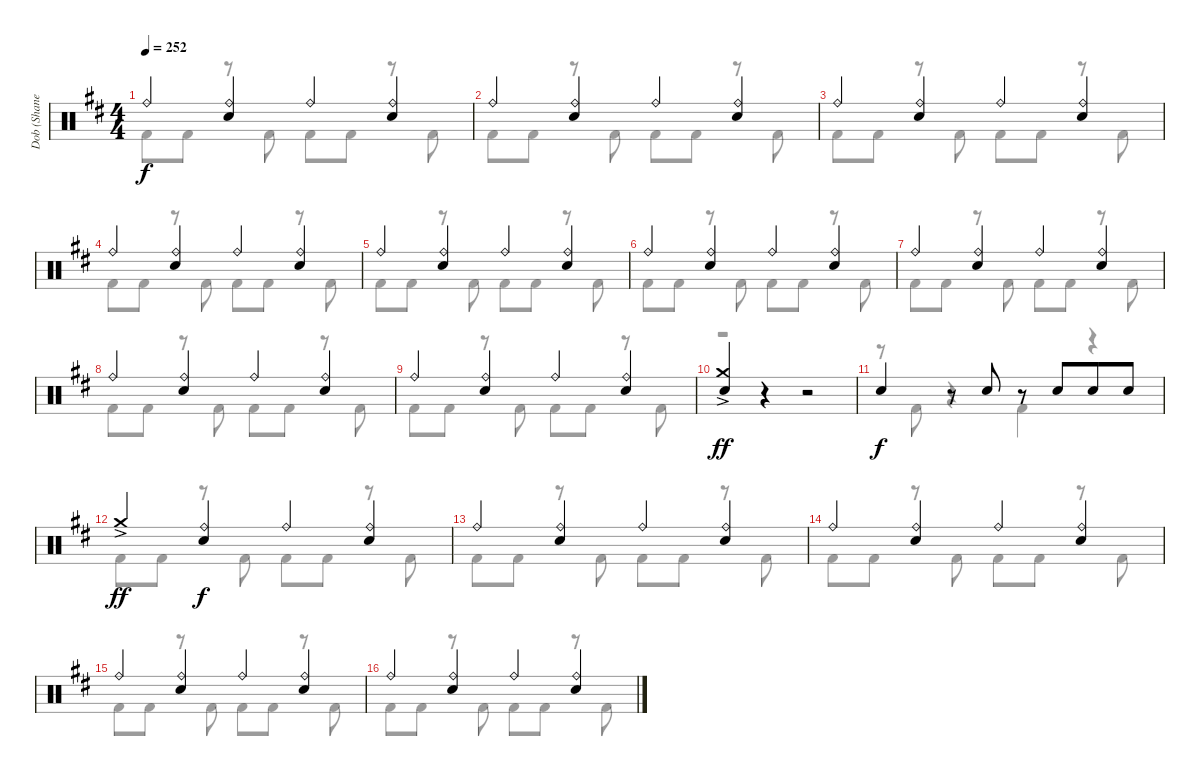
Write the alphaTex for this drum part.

\track ("Dob (Shane Gaalaas)" "Dob (Shane") {instrument percussion}
\staff {score}
\articulation defaults
\voice
\ts (4 4)
\tempo 252
\clef neutral
\ks d "Ride (bell)".4{dy f}
("Ride (bell)" "Electric Snare (hit)").4 "Ride (bell)".4 ("Ride (bell)" "Electric Snare (hit)").4 |
"Ride (bell)".4 ("Ride (bell)" "Electric Snare (hit)").4 "Ride (bell)".4 ("Ride (bell)" "Electric Snare (hit)").4 |
"Ride (bell)".4 ("Ride (bell)" "Electric Snare (hit)").4 "Ride (bell)".4 ("Ride (bell)" "Electric Snare (hit)").4 |
"Ride (bell)".4 ("Ride (bell)" "Electric Snare (hit)").4 "Ride (bell)".4 ("Ride (bell)" "Electric Snare (hit)").4 |
"Ride (bell)".4 ("Ride (bell)" "Electric Snare (hit)").4 "Ride (bell)".4 ("Ride (bell)" "Electric Snare (hit)").4 |
"Ride (bell)".4 ("Ride (bell)" "Electric Snare (hit)").4 "Ride (bell)".4 ("Ride (bell)" "Electric Snare (hit)").4 |
"Ride (bell)".4 ("Ride (bell)" "Electric Snare (hit)").4 "Ride (bell)".4 ("Ride (bell)" "Electric Snare (hit)").4 |
"Ride (bell)".4 ("Ride (bell)" "Electric Snare (hit)").4 "Ride (bell)".4 ("Ride (bell)" "Electric Snare (hit)").4 |
"Ride (bell)".4 ("Ride (bell)" "Electric Snare (hit)").4 "Ride (bell)".4 ("Ride (bell)" "Electric Snare (hit)").4 |
("Crash medium (hit)"{ac} "Electric Snare (hit)").4{dy ff} r.4 r.2 |
"Electric Snare (hit)".4{dy f} r.8 "Electric Snare (hit)".8 r.8 "Electric Snare (hit)".8{beam merge} "Electric Snare (hit)".8 "Electric Snare (hit)".8 |
"Crash medium (hit)"{ac}.4{dy ff} ("Ride (bell)" "Electric Snare (hit)").4{dy f} "Ride (bell)".4 ("Ride (bell)" "Electric Snare (hit)").4 |
"Ride (bell)".4 ("Ride (bell)" "Electric Snare (hit)").4 "Ride (bell)".4 ("Ride (bell)" "Electric Snare (hit)").4 |
"Ride (bell)".4 ("Ride (bell)" "Electric Snare (hit)").4 "Ride (bell)".4 ("Ride (bell)" "Electric Snare (hit)").4 |
"Ride (bell)".4 ("Ride (bell)" "Electric Snare (hit)").4 "Ride (bell)".4 ("Ride (bell)" "Electric Snare (hit)").4 |
"Ride (bell)".4 ("Ride (bell)" "Electric Snare (hit)").4 "Ride (bell)".4 ("Ride (bell)" "Electric Snare (hit)").4
\voice
\clef neutral
\ottava regular
\simile none
\ks d "Kick (hit) 2".8{dy f} "Kick (hit) 2".8
r.8 "Kick (hit) 2".8 "Kick (hit) 2".8 "Kick (hit) 2".8 r.8 "Kick (hit) 2".8 |
"Kick (hit) 2".8 "Kick (hit) 2".8 r.8 "Kick (hit) 2".8 "Kick (hit) 2".8 "Kick (hit) 2".8 r.8 "Kick (hit) 2".8 |
"Kick (hit) 2".8 "Kick (hit) 2".8 r.8 "Kick (hit) 2".8 "Kick (hit) 2".8 "Kick (hit) 2".8 r.8 "Kick (hit) 2".8 |
"Kick (hit) 2".8 "Kick (hit) 2".8 r.8 "Kick (hit) 2".8 "Kick (hit) 2".8 "Kick (hit) 2".8 r.8 "Kick (hit) 2".8 |
"Kick (hit) 2".8 "Kick (hit) 2".8 r.8 "Kick (hit) 2".8 "Kick (hit) 2".8 "Kick (hit) 2".8 r.8 "Kick (hit) 2".8 |
"Kick (hit) 2".8 "Kick (hit) 2".8 r.8 "Kick (hit) 2".8 "Kick (hit) 2".8 "Kick (hit) 2".8 r.8 "Kick (hit) 2".8 |
"Kick (hit) 2".8 "Kick (hit) 2".8 r.8 "Kick (hit) 2".8 "Kick (hit) 2".8 "Kick (hit) 2".8 r.8 "Kick (hit) 2".8 |
"Kick (hit) 2".8 "Kick (hit) 2".8 r.8 "Kick (hit) 2".8 "Kick (hit) 2".8 "Kick (hit) 2".8 r.8 "Kick (hit) 2".8 |
"Kick (hit) 2".8 "Kick (hit) 2".8 r.8 "Kick (hit) 2".8 "Kick (hit) 2".8 "Kick (hit) 2".8 r.8 "Kick (hit) 2".8 |
r.1 |
r.8 "Kick (hit) 2".8 r.4 "Kick (hit) 2".4 r.4 |
"Kick (hit) 2".8 "Kick (hit) 2".8 r.8 "Kick (hit) 2".8 "Kick (hit) 2".8 "Kick (hit) 2".8 r.8 "Kick (hit) 2".8 |
"Kick (hit) 2".8 "Kick (hit) 2".8 r.8 "Kick (hit) 2".8 "Kick (hit) 2".8 "Kick (hit) 2".8 r.8 "Kick (hit) 2".8 |
"Kick (hit) 2".8 "Kick (hit) 2".8 r.8 "Kick (hit) 2".8 "Kick (hit) 2".8 "Kick (hit) 2".8 r.8 "Kick (hit) 2".8 |
"Kick (hit) 2".8 "Kick (hit) 2".8 r.8 "Kick (hit) 2".8 "Kick (hit) 2".8 "Kick (hit) 2".8 r.8 "Kick (hit) 2".8 |
"Kick (hit) 2".8 "Kick (hit) 2".8 r.8 "Kick (hit) 2".8 "Kick (hit) 2".8 "Kick (hit) 2".8 r.8 "Kick (hit) 2".8
